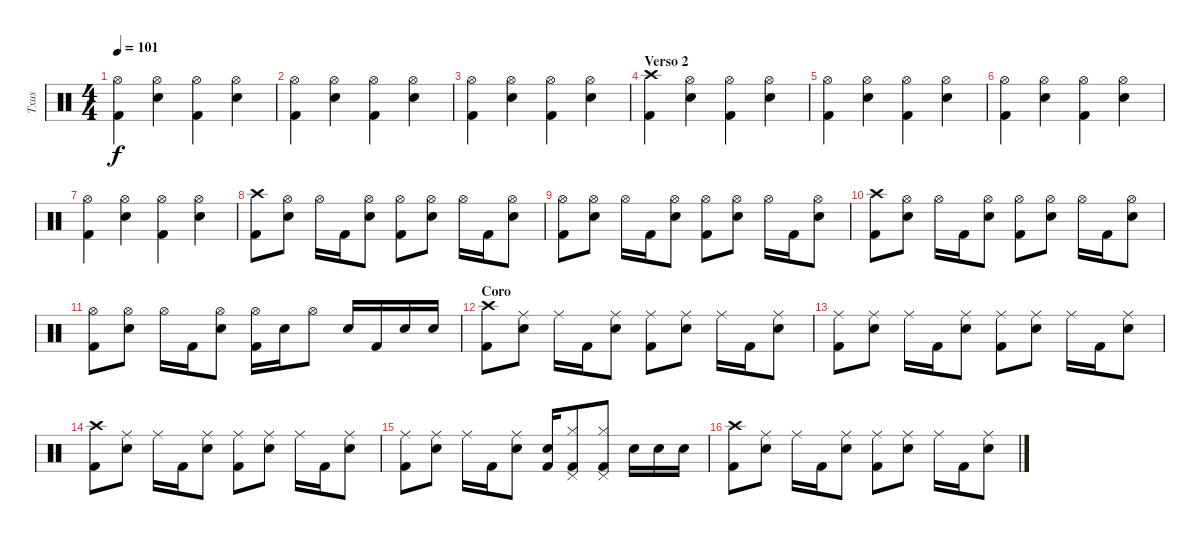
\track ("Txus" "Txus") {instrument percussion}
\staff {score}
\articulation defaults
\ts (4 4)
\tempo 101
\clef neutral
\ks c
("Kick (hit) 2" "Hi-Hat (open)").4{dy f} ("Electric Snare (hit)" "Hi-Hat (open)").4 ("Kick (hit) 2" "Hi-Hat (open)").4 ("Electric Snare (hit)" "Hi-Hat (open)").4 |
("Kick (hit) 2" "Hi-Hat (open)").4 ("Electric Snare (hit)" "Hi-Hat (open)").4 ("Kick (hit) 2" "Hi-Hat (open)").4 ("Electric Snare (hit)" "Hi-Hat (open)").4 |
("Kick (hit) 2" "Hi-Hat (open)").4 ("Electric Snare (hit)" "Hi-Hat (open)").4 ("Kick (hit) 2" "Hi-Hat (open)").4 ("Electric Snare (hit)" "Hi-Hat (open)").4 |
\section ("" "Verso 2")
("Kick (hit) 2" "Crash high (hit)").4 ("Electric Snare (hit)" "Hi-Hat (open)").4 ("Kick (hit) 2" "Hi-Hat (open)").4 ("Electric Snare (hit)" "Hi-Hat (open)").4 |
("Kick (hit) 2" "Hi-Hat (open)").4 ("Electric Snare (hit)" "Hi-Hat (open)").4 ("Kick (hit) 2" "Hi-Hat (open)").4 ("Electric Snare (hit)" "Hi-Hat (open)").4 |
("Kick (hit) 2" "Hi-Hat (open)").4 ("Electric Snare (hit)" "Hi-Hat (open)").4 ("Kick (hit) 2" "Hi-Hat (open)").4 ("Electric Snare (hit)" "Hi-Hat (open)").4 |
("Kick (hit) 2" "Hi-Hat (open)").4 ("Electric Snare (hit)" "Hi-Hat (open)").4 ("Kick (hit) 2" "Hi-Hat (open)").4 ("Electric Snare (hit)" "Hi-Hat (open)").4 |
("Kick (hit) 2" "Crash high (hit)").8 ("Electric Snare (hit)" "Hi-Hat (open)").8 "Hi-Hat (open)".16 "Kick (hit) 2".16 ("Electric Snare (hit)" "Hi-Hat (open)").8 ("Kick (hit) 2" "Hi-Hat (open)").8 ("Electric Snare (hit)" "Hi-Hat (open)").8 "Hi-Hat (open)".16 "Kick (hit) 2".16 ("Electric Snare (hit)" "Hi-Hat (open)").8 |
("Kick (hit) 2" "Hi-Hat (open)").8 ("Electric Snare (hit)" "Hi-Hat (open)").8 "Hi-Hat (open)".16 "Kick (hit) 2".16 ("Electric Snare (hit)" "Hi-Hat (open)").8 ("Kick (hit) 2" "Hi-Hat (open)").8 ("Electric Snare (hit)" "Hi-Hat (open)").8 "Hi-Hat (open)".16 "Kick (hit) 2".16 ("Electric Snare (hit)" "Hi-Hat (open)").8 |
("Kick (hit) 2" "Crash high (hit)").8 ("Electric Snare (hit)" "Hi-Hat (open)").8 "Hi-Hat (open)".16 "Kick (hit) 2".16 ("Electric Snare (hit)" "Hi-Hat (open)").8 ("Kick (hit) 2" "Hi-Hat (open)").8 ("Electric Snare (hit)" "Hi-Hat (open)").8 "Hi-Hat (open)".16 "Kick (hit) 2".16 ("Electric Snare (hit)" "Hi-Hat (open)").8 |
("Kick (hit) 2" "Hi-Hat (open)").8 ("Electric Snare (hit)" "Hi-Hat (open)").8 "Hi-Hat (open)".16 "Kick (hit) 2".16 ("Electric Snare (hit)" "Hi-Hat (open)").8 ("Kick (hit) 2" "Hi-Hat (open)").16 "Electric Snare (hit)".16 "Hi-Hat (open)".8 "Electric Snare (hit)".16 "Kick (hit) 2".16 "Electric Snare (hit)".16 "Electric Snare (hit)".16 |
\section ("" "Coro")
("Kick (hit) 2" "Crash high (hit)").8 ("Electric Snare (hit)" "Ride (middle)").8 "Ride (middle)".16 "Kick (hit) 2".16 ("Electric Snare (hit)" "Ride (middle)").8 ("Kick (hit) 2" "Ride (middle)").8 ("Electric Snare (hit)" "Ride (middle)").8 "Ride (middle)".16 "Kick (hit) 2".16 ("Electric Snare (hit)" "Ride (middle)").8 |
("Kick (hit) 2" "Ride (middle)").8 ("Electric Snare (hit)" "Ride (middle)").8 "Ride (middle)".16 "Kick (hit) 2".16 ("Electric Snare (hit)" "Ride (middle)").8 ("Kick (hit) 2" "Ride (middle)").8 ("Electric Snare (hit)" "Ride (middle)").8 "Ride (middle)".16 "Kick (hit) 2".16 ("Electric Snare (hit)" "Ride (middle)").8 |
("Kick (hit) 2" "Crash high (hit)").8 ("Electric Snare (hit)" "Ride (middle)").8 "Ride (middle)".16 "Kick (hit) 2".16 ("Electric Snare (hit)" "Ride (middle)").8 ("Kick (hit) 2" "Ride (middle)").8 ("Electric Snare (hit)" "Ride (middle)").8 "Ride (middle)".16 "Kick (hit) 2".16 ("Electric Snare (hit)" "Ride (middle)").8 |
("Kick (hit) 2" "Ride (middle)").8 ("Electric Snare (hit)" "Ride (middle)").8 "Ride (middle)".16 "Kick (hit) 2".16 ("Electric Snare (hit)" "Ride (middle)").8 ("Kick (hit) 2" "Electric Snare (hit)").16 ("Kick (hit) 2" "Hi-Hat (closed)" "Pedal Hi-Hat (hit)").8 ("Kick (hit) 2" "Hi-Hat (closed)" "Pedal Hi-Hat (hit)").8 "Electric Snare (hit)".16 "Electric Snare (hit)".16 "Electric Snare (hit)".16 |
("Kick (hit) 2" "Crash high (hit)").8 ("Electric Snare (hit)" "Ride (middle)").8 "Ride (middle)".16 "Kick (hit) 2".16 ("Electric Snare (hit)" "Ride (middle)").8 ("Kick (hit) 2" "Ride (middle)").8 ("Electric Snare (hit)" "Ride (middle)").8 "Ride (middle)".16 "Kick (hit) 2".16 ("Electric Snare (hit)" "Ride (middle)").8
